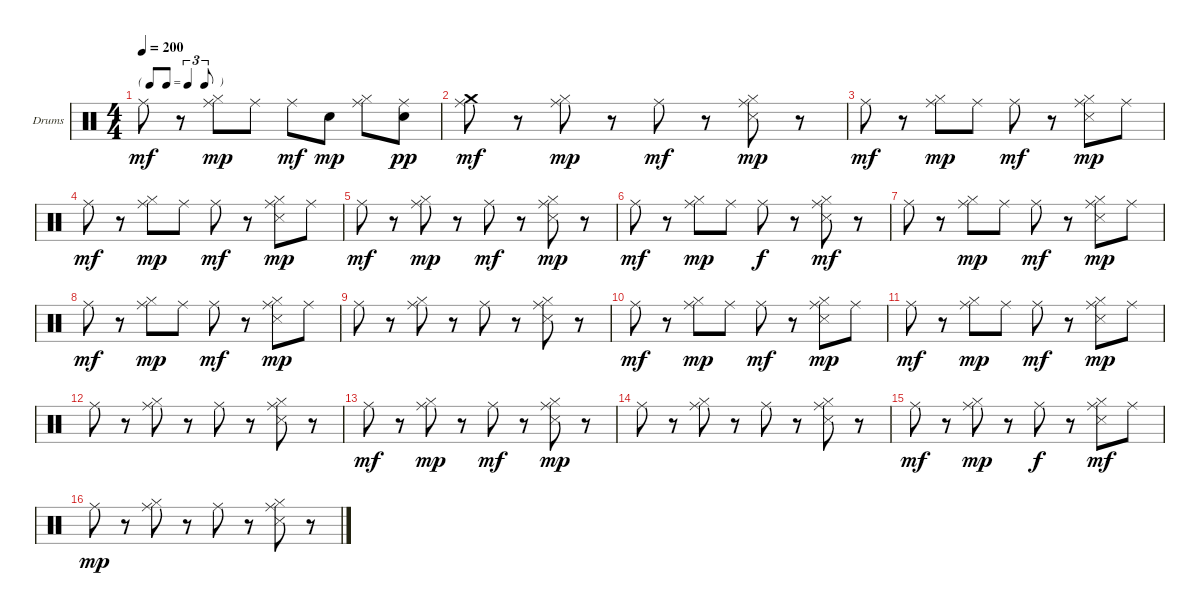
\bracketExtendMode groupsimilarinstruments
\firstSystemTrackNameOrientation horizontal
\otherSystemsTrackNameOrientation horizontal
\track ("Drumkit" "Drums") {instrument percussion}
\staff {score}
\articulation defaults
\ts (4 4)
\tf triplet8th
\tempo 200
\clef neutral
\ks c "Ride (middle)".8{dy mf}
r.8 ("Hi-Hat (closed)" "Ride (middle)").8{dy mp} "Ride (middle)".8 "Ride (middle)".8{dy mf} "Snare (hit) 2".8{dy mp} ("Hi-Hat (closed)" "Ride (middle)").8 ("Snare (hit) 2" "Ride (middle)").8{dy pp} |
("Ride (middle)" "Crash medium (hit)").8{dy mf} r.8 ("Hi-Hat (closed)" "Ride (middle)").8{dy mp} r.8 "Ride (middle)".8{dy mf} r.8 ("Hi-Hat (closed)" "Snare (side stick) 3" "Ride (middle)").8{dy mp} r.8 |
"Ride (middle)".8{dy mf} r.8 ("Hi-Hat (closed)" "Ride (middle)").8{dy mp} "Ride (middle)".8 "Ride (middle)".8{dy mf} r.8 ("Hi-Hat (closed)" "Snare (side stick) 3" "Ride (middle)").8{dy mp} "Ride (middle)".8 |
"Ride (middle)".8{dy mf} r.8 ("Hi-Hat (closed)" "Ride (middle)").8{dy mp} "Ride (middle)".8 "Ride (middle)".8{dy mf} r.8 ("Hi-Hat (closed)" "Snare (side stick) 3" "Ride (middle)").8{dy mp} "Ride (middle)".8 |
"Ride (middle)".8{dy mf} r.8 ("Hi-Hat (closed)" "Ride (middle)").8{dy mp} r.8 "Ride (middle)".8{dy mf} r.8 ("Hi-Hat (closed)" "Snare (side stick) 3" "Ride (middle)").8{dy mp} r.8 |
"Ride (middle)".8{dy mf} r.8 ("Hi-Hat (closed)" "Ride (middle)").8{dy mp} "Ride (middle)".8 "Ride (middle)".8{dy f} r.8 ("Hi-Hat (closed)" "Snare (side stick) 3" "Ride (middle)").8{dy mf} r.8 |
"Ride (middle)".8 r.8 ("Hi-Hat (closed)" "Ride (middle)").8{dy mp} "Ride (middle)".8 "Ride (middle)".8{dy mf} r.8 ("Hi-Hat (closed)" "Snare (side stick) 3" "Ride (middle)").8{dy mp} "Ride (middle)".8 |
"Ride (middle)".8{dy mf} r.8 ("Hi-Hat (closed)" "Ride (middle)").8{dy mp} "Ride (middle)".8 "Ride (middle)".8{dy mf} r.8 ("Hi-Hat (closed)" "Snare (side stick) 3" "Ride (middle)").8{dy mp} "Ride (middle)".8 |
"Ride (middle)".8 r.8 ("Hi-Hat (closed)" "Ride (middle)").8 r.8 "Ride (middle)".8 r.8 ("Hi-Hat (closed)" "Snare (side stick) 3" "Ride (middle)").8 r.8 |
"Ride (middle)".8{dy mf} r.8 ("Hi-Hat (closed)" "Ride (middle)").8{dy mp} "Ride (middle)".8 "Ride (middle)".8{dy mf} r.8 ("Hi-Hat (closed)" "Snare (side stick) 3" "Ride (middle)").8{dy mp} "Ride (middle)".8 |
"Ride (middle)".8{dy mf} r.8 ("Hi-Hat (closed)" "Ride (middle)").8{dy mp} "Ride (middle)".8 "Ride (middle)".8{dy mf} r.8 ("Hi-Hat (closed)" "Snare (side stick) 3" "Ride (middle)").8{dy mp} "Ride (middle)".8 |
"Ride (middle)".8 r.8 ("Hi-Hat (closed)" "Ride (middle)").8 r.8 "Ride (middle)".8 r.8 ("Hi-Hat (closed)" "Snare (side stick) 3" "Ride (middle)").8 r.8 |
"Ride (middle)".8{dy mf} r.8 ("Hi-Hat (closed)" "Ride (middle)").8{dy mp} r.8 "Ride (middle)".8{dy mf} r.8 ("Hi-Hat (closed)" "Snare (side stick) 3" "Ride (middle)").8{dy mp} r.8 |
"Ride (middle)".8 r.8 ("Hi-Hat (closed)" "Ride (middle)").8 r.8 "Ride (middle)".8 r.8 ("Hi-Hat (closed)" "Snare (side stick) 3" "Ride (middle)").8 r.8 |
"Ride (middle)".8{dy mf} r.8 ("Hi-Hat (closed)" "Ride (middle)").8{dy mp} r.8 "Ride (middle)".8{dy f} r.8 ("Hi-Hat (closed)" "Snare (side stick) 3" "Ride (middle)").8{dy mf} "Ride (middle)".8 |
"Ride (middle)".8{dy mp} r.8 ("Hi-Hat (closed)" "Ride (middle)").8 r.8 "Ride (middle)".8 r.8 ("Hi-Hat (closed)" "Snare (side stick) 3" "Ride (middle)").8 r.8
